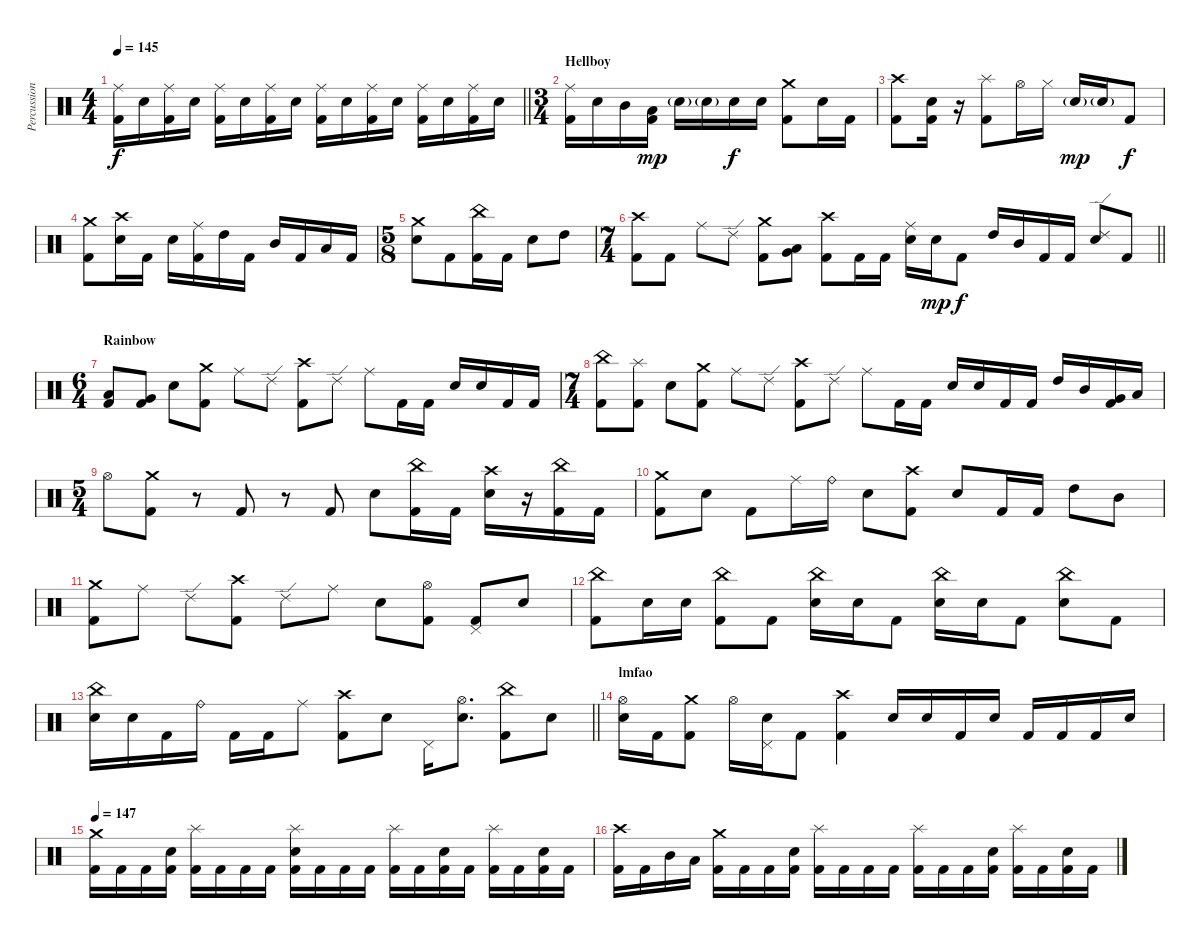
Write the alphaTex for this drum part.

\track ("Percussion" "Percussion") {instrument percussion}
\staff {score}
\articulation defaults
\ts (4 4)
\tempo 145
\clef neutral
\barLineRight lightlight
\ks c
("Ride (middle)" "Kick (hit) 2").16{dy f} "Electric Snare (hit)".16 ("Ride (middle)" "Kick (hit) 2").16 "Electric Snare (hit)".16 ("Ride (middle)" "Kick (hit) 2").16 "Electric Snare (hit)".16 ("Ride (middle)" "Kick (hit) 2").16 "Electric Snare (hit)".16 ("Ride (middle)" "Kick (hit) 2").16 "Electric Snare (hit)".16 ("Ride (middle)" "Kick (hit) 2").16 "Electric Snare (hit)".16 ("Ride (middle)" "Kick (hit) 2").16 "Electric Snare (hit)".16 ("Ride (middle)" "Kick (hit) 2").16 "Electric Snare (hit)".16 |
\ts (3 4)
\section ("" "Hellboy")
("Ride (middle)" "Kick (hit) 2").16 "Electric Snare (hit)".16 "Mid Tom (hit)".16 ("Low Tom (hit)" "Kick (hit) 2").16{dy mp} "Electric Snare (hit)"{g}.16 "Electric Snare (hit)"{g}.16 "Electric Snare (hit)".16{dy f} "Electric Snare (hit)".16 ("Crash medium (hit)" "Kick (hit) 2").8 "Electric Snare (hit)".16 "Kick (hit) 2".16 |
("Crash high (hit)" "Kick (hit) 2").8 ("Electric Snare (hit)" "Kick (hit) 2").16 r.16 ("Splash (hit)" "Kick (hit) 2").8 "Hi-Hat (open)".16 "Hi-Hat (closed)".16 "Electric Snare (hit)"{g}.16{dy mp} "Electric Snare (hit)"{g}.16 "Kick (hit) 2".8{dy f} |
("Crash medium (hit)" "Kick (hit) 2").8 ("Crash high (hit)" "Electric Snare (hit)").16 "Kick (hit) 2".16 "Electric Snare (hit)".16 ("Ride (middle)" "Kick (hit) 2").16 "High Tom (hit)".16 "Kick (hit) 2".16 "Mid Tom (hit)".16 "Kick (hit) 2".16 "Low Tom (hit)".16 "Kick (hit) 2".16 |
\ts (5 8)
("Crash medium (hit)" "Electric Snare (hit)").8 "Kick (hit) 2".8 ("China (hit)" "Kick (hit) 2").16 "Kick (hit) 2".16 "Electric Snare (hit)".8 "High Tom (hit)".8 |
\ts (7 4)
\barLineRight lightlight
("Crash high (hit)" "Kick (hit) 2").8 "Kick (hit) 2".8 "Ride (middle)".8 "Ride (edge) 2".8 ("Crash medium (hit)" "Kick (hit) 2").8 ("Low Tom (hit)" "Very Low Tom (hit)").8 ("Crash high (hit)" "Kick (hit) 2").8 "Kick (hit) 2".16 "Kick (hit) 2".16 ("Ride (middle)" "Electric Snare (hit)").16 "Electric Snare (hit)".16{dy mp} "Kick (hit) 2".8{dy f} "High Tom (hit)".16 "Mid Tom (hit)".16 "Kick (hit) 2".16 "Kick (hit) 2".16 ("Ride (edge) 2" "Electric Snare (hit)").8 "Kick (hit) 2".8 |
\ts (6 4)
\section ("" "Rainbow")
("Low Tom (hit)" "Kick (hit) 2").8 ("Very Low Tom (hit)" "Kick (hit) 2").8 "Electric Snare (hit)".8 ("Crash medium (hit)" "Kick (hit) 2").8 "Ride (middle)".8 "Ride (edge) 2".8 ("Crash high (hit)" "Kick (hit) 2").8 "Ride (edge) 2".8 "Ride (middle)".8 "Kick (hit) 2".16 "Kick (hit) 2".16 "Electric Snare (hit)".16 "Electric Snare (hit)".16 "Kick (hit) 2".16 "Kick (hit) 2".16 |
\ts (7 4)
("China (hit)" "Kick (hit) 2").8 ("Splash (hit)" "Kick (hit) 2").8 "Electric Snare (hit)".8 ("Crash medium (hit)" "Kick (hit) 2").8 "Ride (middle)".8 "Ride (edge) 2".8 ("Crash high (hit)" "Kick (hit) 2").8 "Ride (edge) 2".8 "Ride (middle)".8 "Kick (hit) 2".16 "Kick (hit) 2".16 "Electric Snare (hit)".16 "Electric Snare (hit)".16 "Kick (hit) 2".16 "Kick (hit) 2".16 "High Tom (hit)".16 "Mid Tom (hit)".16 ("Very Low Tom (hit)" "Kick (hit) 2").16 "Low Tom (hit)".16 |
\ts (5 4)
"Hi-Hat (open)".8 ("Crash medium (hit)" "Kick (hit) 2").8 r.8 "Kick (hit) 2".8 r.8 "Kick (hit) 2".8 "Electric Snare (hit)".8 ("China (hit)" "Kick (hit) 2").16 "Kick (hit) 2".16 ("Crash high (hit)" "Electric Snare (hit)").16 r.16 ("China (hit)" "Kick (hit) 2").16 "Kick (hit) 2".16 |
("Crash medium (hit)" "Kick (hit) 2").8 "Electric Snare (hit)".8 "Kick (hit) 2".8 "Ride (middle)".16 "Ride (bell)".16 "Electric Snare (hit)".8 ("Crash high (hit)" "Kick (hit) 2").8 "Electric Snare (hit)".8 "Kick (hit) 2".16 "Kick (hit) 2".16 "High Tom (hit)".8 "Mid Tom (hit)".8 |
("Crash medium (hit)" "Kick (hit) 2").8 "Ride (middle)".8 "Ride (edge) 2".8 ("Crash high (hit)" "Kick (hit) 2").8 "Ride (edge) 2".8 "Ride (middle)".8 "Electric Snare (hit)".8 ("Hi-Hat (open)" "Kick (hit) 2").8 ("Pedal Hi-Hat (hit)" "Kick (hit) 2").8 "Electric Snare (hit)".8 |
("China (hit)" "Kick (hit) 2").8 "Electric Snare (hit)".16 "Electric Snare (hit)".16 ("China (hit)" "Kick (hit) 2").8 "Kick (hit) 2".8 ("China (hit)" "Electric Snare (hit)").16 "Electric Snare (hit)".16 "Kick (hit) 2".8 ("China (hit)" "Electric Snare (hit)").16 "Electric Snare (hit)".16 "Kick (hit) 2".8 ("China (hit)" "Electric Snare (hit)").8 "Kick (hit) 2".8 |
\barLineRight lightlight
("China (hit)" "Electric Snare (hit)").16 "Electric Snare (hit)".16 "Kick (hit) 2".16 "Ride (bell)".16 "Kick (hit) 2".16 "Kick (hit) 2".16 "Ride (middle)".8 ("Crash high (hit)" "Kick (hit) 2").8 "Electric Snare (hit)".8 "Pedal Hi-Hat (hit)".16 ("Hi-Hat (open)" "Electric Snare (hit)").8{d} ("China (hit)" "Kick (hit) 2").8 "Electric Snare (hit)".8 |
\section ("" "lmfao")
("Hi-Hat (open)" "Electric Snare (hit)").16 "Kick (hit) 2".16 ("Crash medium (hit)" "Kick (hit) 2").8 "Hi-Hat (open)".16 ("Pedal Hi-Hat (hit)" "Electric Snare (hit)").16 "Kick (hit) 2".8 ("Crash high (hit)" "Kick (hit) 2").4 "Electric Snare (hit)".16 "Electric Snare (hit)".16 "Kick (hit) 2".16 "Electric Snare (hit)".16 "Kick (hit) 2".16 "Kick (hit) 2".16 "Kick (hit) 2".16 "Electric Snare (hit)".16 |
\tempo 147
("Crash medium (hit)" "Kick (hit) 2").16 "Kick (hit) 2".16 "Kick (hit) 2".16 ("Electric Snare (hit)" "Kick (hit) 2").16 ("Splash (hit)" "Kick (hit) 2").16 "Kick (hit) 2".16 "Kick (hit) 2".16 "Kick (hit) 2".16 ("Splash (hit)" "Electric Snare (hit)" "Kick (hit) 2").16 "Kick (hit) 2".16 "Kick (hit) 2".16 "Kick (hit) 2".16 ("Splash (hit)" "Kick (hit) 2").16 "Kick (hit) 2".16 ("Electric Snare (hit)" "Kick (hit) 2").16 "Kick (hit) 2".16 ("Splash (hit)" "Kick (hit) 2").16 "Kick (hit) 2".16 ("Electric Snare (hit)" "Kick (hit) 2").16 "Kick (hit) 2".16 |
("Crash high (hit)" "Kick (hit) 2").16 "Kick (hit) 2".16 "Mid Tom (hit)".16 "Low Tom (hit)".16 ("Crash medium (hit)" "Kick (hit) 2").16 "Kick (hit) 2".16 "Kick (hit) 2".16 ("Electric Snare (hit)" "Kick (hit) 2").16 ("Splash (hit)" "Kick (hit) 2").16 "Kick (hit) 2".16 "Kick (hit) 2".16 "Kick (hit) 2".16 ("Splash (hit)" "Kick (hit) 2").16 "Kick (hit) 2".16 "Kick (hit) 2".16 ("Electric Snare (hit)" "Kick (hit) 2").16 ("Splash (hit)" "Kick (hit) 2").16 "Kick (hit) 2".16 ("Electric Snare (hit)" "Kick (hit) 2").16 "Kick (hit) 2".16
